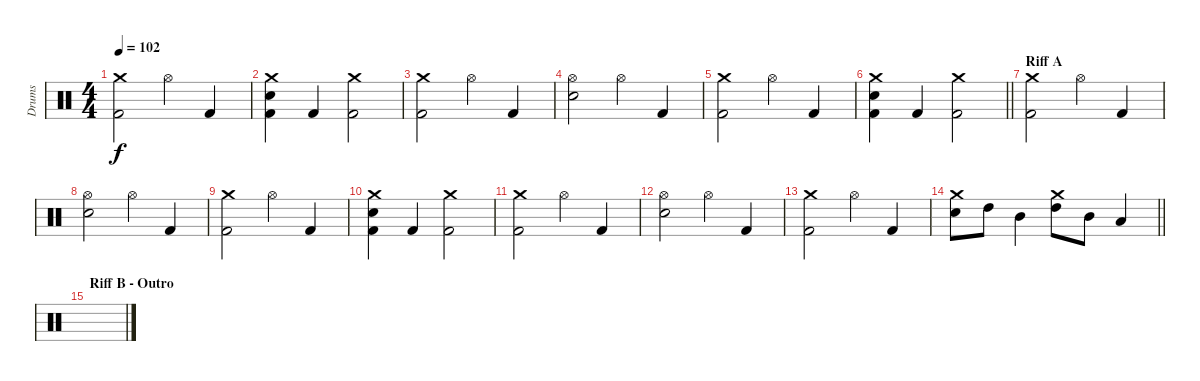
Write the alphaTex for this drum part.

\track ("Drums" "Drums") {instrument percussion}
\staff {score}
\articulation defaults
\ts (4 4)
\tempo 102
\clef neutral
\ks c
("Crash medium (hit)" "Kick (hit) 2").2{dy f} "Hi-Hat (open)".4 "Kick (hit) 2".4 |
("Crash medium (hit)" "Electric Snare (hit)" "Kick (hit) 2").4 "Kick (hit) 2".4 ("Crash medium (hit)" "Kick (hit) 2").2 |
("Crash medium (hit)" "Kick (hit) 2").2 "Hi-Hat (open)".4 "Kick (hit) 2".4 |
("Hi-Hat (open)" "Electric Snare (hit)").2 "Hi-Hat (open)".4 "Kick (hit) 2".4 |
("Crash medium (hit)" "Kick (hit) 2").2 "Hi-Hat (open)".4 "Kick (hit) 2".4 |
\barLineRight lightlight
("Crash medium (hit)" "Electric Snare (hit)" "Kick (hit) 2").4 "Kick (hit) 2".4 ("Crash medium (hit)" "Kick (hit) 2").2 |
\section ("" "Riff A")
("Crash medium (hit)" "Kick (hit) 2").2 "Hi-Hat (open)".4 "Kick (hit) 2".4 |
("Hi-Hat (open)" "Electric Snare (hit)").2 "Hi-Hat (open)".4 "Kick (hit) 2".4 |
("Crash medium (hit)" "Kick (hit) 2").2 "Hi-Hat (open)".4 "Kick (hit) 2".4 |
("Crash medium (hit)" "Electric Snare (hit)" "Kick (hit) 2").4 "Kick (hit) 2".4 ("Crash medium (hit)" "Kick (hit) 2").2 |
("Crash medium (hit)" "Kick (hit) 2").2 "Hi-Hat (open)".4 "Kick (hit) 2".4 |
("Hi-Hat (open)" "Electric Snare (hit)").2 "Hi-Hat (open)".4 "Kick (hit) 2".4 |
("Crash medium (hit)" "Kick (hit) 2").2 "Hi-Hat (open)".4 "Kick (hit) 2".4 |
\barLineRight lightlight
("Crash medium (hit)" "Electric Snare (hit)").8 "High Tom (hit)".8 "Mid Tom (hit)".4 ("Crash medium (hit)" "High Tom (hit)").8 "Mid Tom (hit)".8 "Low Tom (hit)".4 |
\section ("" "Riff B - Outro")
